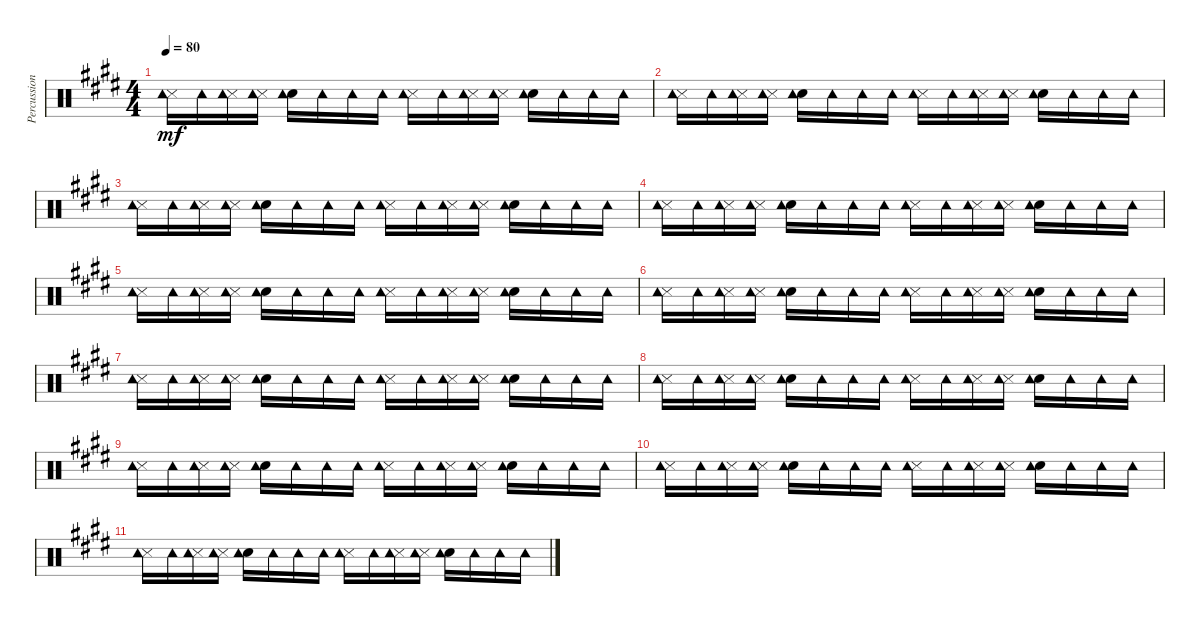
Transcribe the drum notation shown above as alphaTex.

\track ("Percussion" "Percussion") {instrument percussion}
\staff {score}
\articulation defaults
\ts (4 4)
\tempo 80
\clef neutral
\ks c#minor
("Metronome (hit)" "Tambourine (hit)").16{dy mf} "Tambourine (hit)".16 ("Metronome (hit)" "Tambourine (hit)").16 ("Metronome (hit)" "Tambourine (hit)").16 ("Snare (hit) 2" "Tambourine (hit)").16 "Tambourine (hit)".16 "Tambourine (hit)".16 "Tambourine (hit)".16 ("Metronome (hit)" "Tambourine (hit)").16 "Tambourine (hit)".16 ("Metronome (hit)" "Tambourine (hit)").16 ("Metronome (hit)" "Tambourine (hit)").16 ("Snare (hit) 2" "Tambourine (hit)").16 "Tambourine (hit)".16 "Tambourine (hit)".16 "Tambourine (hit)".16 |
("Metronome (hit)" "Tambourine (hit)").16 "Tambourine (hit)".16 ("Metronome (hit)" "Tambourine (hit)").16 ("Metronome (hit)" "Tambourine (hit)").16 ("Snare (hit) 2" "Tambourine (hit)").16 "Tambourine (hit)".16 "Tambourine (hit)".16 "Tambourine (hit)".16 ("Metronome (hit)" "Tambourine (hit)").16 "Tambourine (hit)".16 ("Metronome (hit)" "Tambourine (hit)").16 ("Metronome (hit)" "Tambourine (hit)").16 ("Snare (hit) 2" "Tambourine (hit)").16 "Tambourine (hit)".16 "Tambourine (hit)".16 "Tambourine (hit)".16 |
("Metronome (hit)" "Tambourine (hit)").16 "Tambourine (hit)".16 ("Metronome (hit)" "Tambourine (hit)").16 ("Metronome (hit)" "Tambourine (hit)").16 ("Snare (hit) 2" "Tambourine (hit)").16 "Tambourine (hit)".16 "Tambourine (hit)".16 "Tambourine (hit)".16 ("Metronome (hit)" "Tambourine (hit)").16 "Tambourine (hit)".16 ("Metronome (hit)" "Tambourine (hit)").16 ("Metronome (hit)" "Tambourine (hit)").16 ("Snare (hit) 2" "Tambourine (hit)").16 "Tambourine (hit)".16 "Tambourine (hit)".16 "Tambourine (hit)".16 |
("Metronome (hit)" "Tambourine (hit)").16 "Tambourine (hit)".16 ("Metronome (hit)" "Tambourine (hit)").16 ("Metronome (hit)" "Tambourine (hit)").16 ("Snare (hit) 2" "Tambourine (hit)").16 "Tambourine (hit)".16 "Tambourine (hit)".16 "Tambourine (hit)".16 ("Metronome (hit)" "Tambourine (hit)").16 "Tambourine (hit)".16 ("Metronome (hit)" "Tambourine (hit)").16 ("Metronome (hit)" "Tambourine (hit)").16 ("Snare (hit) 2" "Tambourine (hit)").16 "Tambourine (hit)".16 "Tambourine (hit)".16 "Tambourine (hit)".16 |
("Metronome (hit)" "Tambourine (hit)").16 "Tambourine (hit)".16 ("Metronome (hit)" "Tambourine (hit)").16 ("Metronome (hit)" "Tambourine (hit)").16 ("Snare (hit) 2" "Tambourine (hit)").16 "Tambourine (hit)".16 "Tambourine (hit)".16 "Tambourine (hit)".16 ("Metronome (hit)" "Tambourine (hit)").16 "Tambourine (hit)".16 ("Metronome (hit)" "Tambourine (hit)").16 ("Metronome (hit)" "Tambourine (hit)").16 ("Snare (hit) 2" "Tambourine (hit)").16 "Tambourine (hit)".16 "Tambourine (hit)".16 "Tambourine (hit)".16 |
("Metronome (hit)" "Tambourine (hit)").16 "Tambourine (hit)".16 ("Metronome (hit)" "Tambourine (hit)").16 ("Metronome (hit)" "Tambourine (hit)").16 ("Snare (hit) 2" "Tambourine (hit)").16 "Tambourine (hit)".16 "Tambourine (hit)".16 "Tambourine (hit)".16 ("Metronome (hit)" "Tambourine (hit)").16 "Tambourine (hit)".16 ("Metronome (hit)" "Tambourine (hit)").16 ("Metronome (hit)" "Tambourine (hit)").16 ("Snare (hit) 2" "Tambourine (hit)").16 "Tambourine (hit)".16 "Tambourine (hit)".16 "Tambourine (hit)".16 |
("Metronome (hit)" "Tambourine (hit)").16 "Tambourine (hit)".16 ("Metronome (hit)" "Tambourine (hit)").16 ("Metronome (hit)" "Tambourine (hit)").16 ("Snare (hit) 2" "Tambourine (hit)").16 "Tambourine (hit)".16 "Tambourine (hit)".16 "Tambourine (hit)".16 ("Metronome (hit)" "Tambourine (hit)").16 "Tambourine (hit)".16 ("Metronome (hit)" "Tambourine (hit)").16 ("Metronome (hit)" "Tambourine (hit)").16 ("Snare (hit) 2" "Tambourine (hit)").16 "Tambourine (hit)".16 "Tambourine (hit)".16 "Tambourine (hit)".16 |
("Metronome (hit)" "Tambourine (hit)").16 "Tambourine (hit)".16 ("Metronome (hit)" "Tambourine (hit)").16 ("Metronome (hit)" "Tambourine (hit)").16 ("Snare (hit) 2" "Tambourine (hit)").16 "Tambourine (hit)".16 "Tambourine (hit)".16 "Tambourine (hit)".16 ("Metronome (hit)" "Tambourine (hit)").16 "Tambourine (hit)".16 ("Metronome (hit)" "Tambourine (hit)").16 ("Metronome (hit)" "Tambourine (hit)").16 ("Snare (hit) 2" "Tambourine (hit)").16 "Tambourine (hit)".16 "Tambourine (hit)".16 "Tambourine (hit)".16 |
("Metronome (hit)" "Tambourine (hit)").16 "Tambourine (hit)".16 ("Metronome (hit)" "Tambourine (hit)").16 ("Metronome (hit)" "Tambourine (hit)").16 ("Snare (hit) 2" "Tambourine (hit)").16 "Tambourine (hit)".16 "Tambourine (hit)".16 "Tambourine (hit)".16 ("Metronome (hit)" "Tambourine (hit)").16 "Tambourine (hit)".16 ("Metronome (hit)" "Tambourine (hit)").16 ("Metronome (hit)" "Tambourine (hit)").16 ("Snare (hit) 2" "Tambourine (hit)").16 "Tambourine (hit)".16 "Tambourine (hit)".16 "Tambourine (hit)".16 |
("Metronome (hit)" "Tambourine (hit)").16 "Tambourine (hit)".16 ("Metronome (hit)" "Tambourine (hit)").16 ("Metronome (hit)" "Tambourine (hit)").16 ("Snare (hit) 2" "Tambourine (hit)").16 "Tambourine (hit)".16 "Tambourine (hit)".16 "Tambourine (hit)".16 ("Metronome (hit)" "Tambourine (hit)").16 "Tambourine (hit)".16 ("Metronome (hit)" "Tambourine (hit)").16 ("Metronome (hit)" "Tambourine (hit)").16 ("Snare (hit) 2" "Tambourine (hit)").16 "Tambourine (hit)".16 "Tambourine (hit)".16 "Tambourine (hit)".16 |
("Metronome (hit)" "Tambourine (hit)").16 "Tambourine (hit)".16 ("Metronome (hit)" "Tambourine (hit)").16 ("Metronome (hit)" "Tambourine (hit)").16 ("Snare (hit) 2" "Tambourine (hit)").16 "Tambourine (hit)".16 "Tambourine (hit)".16 "Tambourine (hit)".16 ("Metronome (hit)" "Tambourine (hit)").16 "Tambourine (hit)".16 ("Metronome (hit)" "Tambourine (hit)").16 ("Metronome (hit)" "Tambourine (hit)").16 ("Snare (hit) 2" "Tambourine (hit)").16 "Tambourine (hit)".16 "Tambourine (hit)".16 "Tambourine (hit)".16
